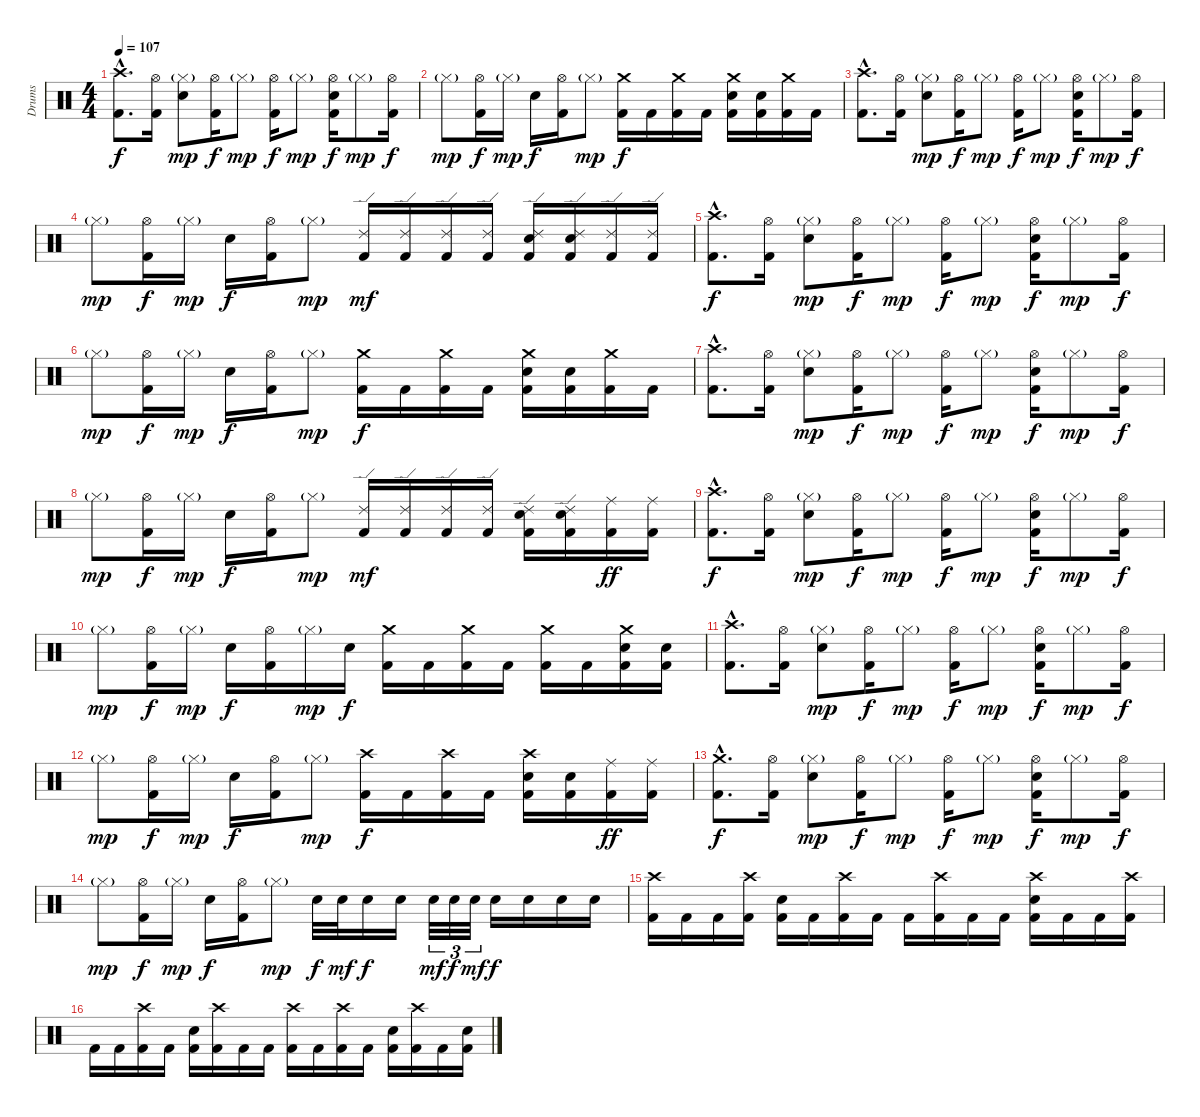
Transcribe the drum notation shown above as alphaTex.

\track ("Drums" "Drums") {instrument percussion}
\staff {score}
\articulation defaults
\ts (4 4)
\tempo 107
\clef neutral
\ks c
("Kick (hit) 2"{hac} "Crash high (hit)"{hac}).8{d dy f} ("Kick (hit) 2" "Hi-Hat (open)").16 ("Electric Snare (hit)" "Hi-Hat (closed)"{g}).8{dy mp} ("Kick (hit) 2" "Hi-Hat (open)").16{dy f} "Hi-Hat (closed)"{g}.8{dy mp} ("Kick (hit) 2" "Hi-Hat (open)").16{dy f} "Hi-Hat (closed)"{g}.8{dy mp} ("Kick (hit) 2" "Electric Snare (hit)" "Hi-Hat (open)").16{dy f} "Hi-Hat (closed)"{g}.8{dy mp} ("Kick (hit) 2" "Hi-Hat (open)").16{dy f} |
"Hi-Hat (closed)"{g}.8{dy mp} ("Kick (hit) 2" "Hi-Hat (open)").16{dy f} "Hi-Hat (closed)"{g}.16{dy mp} "Electric Snare (hit)".16{dy f} ("Kick (hit) 2" "Hi-Hat (open)").16 "Hi-Hat (closed)"{g}.8{dy mp} ("Kick (hit) 2" "Crash medium (hit)").16{dy f} "Kick (hit) 2".16 ("Kick (hit) 2" "Crash medium (hit)").16 "Kick (hit) 2".16 ("Kick (hit) 2" "Electric Snare (hit)" "Crash medium (hit)").16 ("Kick (hit) 2" "Electric Snare (hit)").16 ("Kick (hit) 2" "Crash medium (hit)").16 "Kick (hit) 2".16 |
("Kick (hit) 2"{hac} "Crash high (hit)"{hac}).8{d} ("Kick (hit) 2" "Hi-Hat (open)").16 ("Electric Snare (hit)" "Hi-Hat (closed)"{g}).8{dy mp} ("Kick (hit) 2" "Hi-Hat (open)").16{dy f} "Hi-Hat (closed)"{g}.8{dy mp} ("Kick (hit) 2" "Hi-Hat (open)").16{dy f} "Hi-Hat (closed)"{g}.8{dy mp} ("Kick (hit) 2" "Electric Snare (hit)" "Hi-Hat (open)").16{dy f} "Hi-Hat (closed)"{g}.8{dy mp} ("Kick (hit) 2" "Hi-Hat (open)").16{dy f} |
"Hi-Hat (closed)"{g}.8{dy mp} ("Kick (hit) 2" "Hi-Hat (open)").16{dy f} "Hi-Hat (closed)"{g}.16{dy mp} "Electric Snare (hit)".16{dy f} ("Kick (hit) 2" "Hi-Hat (open)").16 "Hi-Hat (closed)"{g}.8{dy mp} ("Kick (hit) 2" "Ride (edge) 2").16{dy mf} ("Kick (hit) 2" "Ride (edge) 2").16 ("Kick (hit) 2" "Ride (edge) 2").16 ("Kick (hit) 2" "Ride (edge) 2").16 ("Kick (hit) 2" "Electric Snare (hit)" "Ride (edge) 2").16 ("Kick (hit) 2" "Electric Snare (hit)" "Ride (edge) 2").16 ("Kick (hit) 2" "Ride (edge) 2").16 ("Kick (hit) 2" "Ride (edge) 2").16 |
("Kick (hit) 2"{hac} "Crash high (hit)"{hac}).8{d dy f} ("Kick (hit) 2" "Hi-Hat (open)").16 ("Electric Snare (hit)" "Hi-Hat (closed)"{g}).8{dy mp} ("Kick (hit) 2" "Hi-Hat (open)").16{dy f} "Hi-Hat (closed)"{g}.8{dy mp} ("Kick (hit) 2" "Hi-Hat (open)").16{dy f} "Hi-Hat (closed)"{g}.8{dy mp} ("Kick (hit) 2" "Electric Snare (hit)" "Hi-Hat (open)").16{dy f} "Hi-Hat (closed)"{g}.8{dy mp} ("Kick (hit) 2" "Hi-Hat (open)").16{dy f} |
"Hi-Hat (closed)"{g}.8{dy mp} ("Kick (hit) 2" "Hi-Hat (open)").16{dy f} "Hi-Hat (closed)"{g}.16{dy mp} "Electric Snare (hit)".16{dy f} ("Kick (hit) 2" "Hi-Hat (open)").16 "Hi-Hat (closed)"{g}.8{dy mp} ("Kick (hit) 2" "Crash medium (hit)").16{dy f} "Kick (hit) 2".16 ("Kick (hit) 2" "Crash medium (hit)").16 "Kick (hit) 2".16 ("Kick (hit) 2" "Electric Snare (hit)" "Crash medium (hit)").16 ("Kick (hit) 2" "Electric Snare (hit)").16 ("Kick (hit) 2" "Crash medium (hit)").16 "Kick (hit) 2".16 |
("Kick (hit) 2"{hac} "Crash high (hit)"{hac}).8{d} ("Kick (hit) 2" "Hi-Hat (open)").16 ("Electric Snare (hit)" "Hi-Hat (closed)"{g}).8{dy mp} ("Kick (hit) 2" "Hi-Hat (open)").16{dy f} "Hi-Hat (closed)"{g}.8{dy mp} ("Kick (hit) 2" "Hi-Hat (open)").16{dy f} "Hi-Hat (closed)"{g}.8{dy mp} ("Kick (hit) 2" "Electric Snare (hit)" "Hi-Hat (open)").16{dy f} "Hi-Hat (closed)"{g}.8{dy mp} ("Kick (hit) 2" "Hi-Hat (open)").16{dy f} |
"Hi-Hat (closed)"{g}.8{dy mp} ("Kick (hit) 2" "Hi-Hat (open)").16{dy f} "Hi-Hat (closed)"{g}.16{dy mp} "Electric Snare (hit)".16{dy f} ("Kick (hit) 2" "Hi-Hat (open)").16 "Hi-Hat (closed)"{g}.8{dy mp} ("Kick (hit) 2" "Ride (edge) 2").16{dy mf} ("Kick (hit) 2" "Ride (edge) 2").16 ("Kick (hit) 2" "Ride (edge) 2").16 ("Kick (hit) 2" "Ride (edge) 2").16 ("Kick (hit) 2" "Electric Snare (hit)" "Ride (edge) 2").16 ("Kick (hit) 2" "Electric Snare (hit)" "Ride (edge) 2").16 ("Kick (hit) 2" "Ride (middle)").16{dy ff} ("Kick (hit) 2" "Ride (middle)").16 |
("Kick (hit) 2"{hac} "Crash high (hit)"{hac}).8{d dy f} ("Kick (hit) 2" "Hi-Hat (open)").16 ("Electric Snare (hit)" "Hi-Hat (closed)"{g}).8{dy mp} ("Kick (hit) 2" "Hi-Hat (open)").16{dy f} "Hi-Hat (closed)"{g}.8{dy mp} ("Kick (hit) 2" "Hi-Hat (open)").16{dy f} "Hi-Hat (closed)"{g}.8{dy mp} ("Kick (hit) 2" "Electric Snare (hit)" "Hi-Hat (open)").16{dy f} "Hi-Hat (closed)"{g}.8{dy mp} ("Kick (hit) 2" "Hi-Hat (open)").16{dy f} |
"Hi-Hat (closed)"{g}.8{dy mp} ("Kick (hit) 2" "Hi-Hat (open)").16{dy f} "Hi-Hat (closed)"{g}.16{dy mp} "Electric Snare (hit)".16{dy f} ("Kick (hit) 2" "Hi-Hat (open)").16 "Hi-Hat (closed)"{g}.16{dy mp} "Electric Snare (hit)".16{dy f} ("Kick (hit) 2" "Crash medium (hit)").16 "Kick (hit) 2".16 ("Kick (hit) 2" "Crash medium (hit)").16 "Kick (hit) 2".16 ("Kick (hit) 2" "Crash medium (hit)").16 "Kick (hit) 2".16 ("Kick (hit) 2" "Electric Snare (hit)" "Crash medium (hit)").16 ("Kick (hit) 2" "Electric Snare (hit)").16 |
("Kick (hit) 2"{hac} "Crash high (hit)"{hac}).8{d} ("Kick (hit) 2" "Hi-Hat (open)").16 ("Electric Snare (hit)" "Hi-Hat (closed)"{g}).8{dy mp} ("Kick (hit) 2" "Hi-Hat (open)").16{dy f} "Hi-Hat (closed)"{g}.8{dy mp} ("Kick (hit) 2" "Hi-Hat (open)").16{dy f} "Hi-Hat (closed)"{g}.8{dy mp} ("Kick (hit) 2" "Electric Snare (hit)" "Hi-Hat (open)").16{dy f} "Hi-Hat (closed)"{g}.8{dy mp} ("Kick (hit) 2" "Hi-Hat (open)").16{dy f} |
"Hi-Hat (closed)"{g}.8{dy mp} ("Kick (hit) 2" "Hi-Hat (open)").16{dy f} "Hi-Hat (closed)"{g}.16{dy mp} "Electric Snare (hit)".16{dy f} ("Kick (hit) 2" "Hi-Hat (open)").16 "Hi-Hat (closed)"{g}.8{dy mp} ("Kick (hit) 2" "Crash high (hit)").16{dy f} "Kick (hit) 2".16 ("Kick (hit) 2" "Crash high (hit)").16 "Kick (hit) 2".16 ("Kick (hit) 2" "Electric Snare (hit)" "Crash high (hit)").16 ("Kick (hit) 2" "Electric Snare (hit)").16 ("Kick (hit) 2" "Ride (middle)").16{dy ff} ("Kick (hit) 2" "Ride (middle)").16 |
("Kick (hit) 2"{hac} "Crash medium (hit)"{hac}).8{d dy f} ("Kick (hit) 2" "Hi-Hat (open)").16 ("Electric Snare (hit)" "Hi-Hat (closed)"{g}).8{dy mp} ("Kick (hit) 2" "Hi-Hat (open)").16{dy f} "Hi-Hat (closed)"{g}.8{dy mp} ("Kick (hit) 2" "Hi-Hat (open)").16{dy f} "Hi-Hat (closed)"{g}.8{dy mp} ("Kick (hit) 2" "Electric Snare (hit)" "Hi-Hat (open)").16{dy f} "Hi-Hat (closed)"{g}.8{dy mp} ("Kick (hit) 2" "Hi-Hat (open)").16{dy f} |
"Hi-Hat (closed)"{g}.8{dy mp} ("Kick (hit) 2" "Hi-Hat (open)").16{dy f} "Hi-Hat (closed)"{g}.16{dy mp} "Electric Snare (hit)".16{dy f} ("Kick (hit) 2" "Hi-Hat (open)").16 "Hi-Hat (closed)"{g}.8{dy mp} "Electric Snare (hit)".32{dy f} "Electric Snare (hit)".32{dy mf} "Electric Snare (hit)".16{dy f} "Electric Snare (hit)".16 "Electric Snare (hit)".32{tu (3 2) dy mf} "Electric Snare (hit)".32{tu (3 2) dy f} "Electric Snare (hit)".32{tu (3 2) dy mf} "Electric Snare (hit)".16{dy f} "Electric Snare (hit)".16 "Electric Snare (hit)".16 "Electric Snare (hit)".16 |
("Kick (hit) 2" "Crash high (hit)").16 "Kick (hit) 2".16 "Kick (hit) 2".16 ("Kick (hit) 2" "Crash high (hit)").16 ("Kick (hit) 2" "Electric Snare (hit)").16 "Kick (hit) 2".16 ("Kick (hit) 2" "Crash high (hit)").16 "Kick (hit) 2".16 "Kick (hit) 2".16 ("Kick (hit) 2" "Crash high (hit)").16 "Kick (hit) 2".16 "Kick (hit) 2".16 ("Kick (hit) 2" "Electric Snare (hit)" "Crash high (hit)").16 "Kick (hit) 2".16 "Kick (hit) 2".16 ("Kick (hit) 2" "Crash high (hit)").16 |
"Kick (hit) 2".16 "Kick (hit) 2".16 ("Kick (hit) 2" "Crash high (hit)").16 "Kick (hit) 2".16 ("Kick (hit) 2" "Electric Snare (hit)").16 ("Kick (hit) 2" "Crash high (hit)").16 "Kick (hit) 2".16 "Kick (hit) 2".16 ("Kick (hit) 2" "Crash high (hit)").16 "Kick (hit) 2".16 ("Kick (hit) 2" "Crash high (hit)").16 "Kick (hit) 2".16 ("Kick (hit) 2" "Electric Snare (hit)").16 ("Kick (hit) 2" "Crash high (hit)").16 "Kick (hit) 2".16 ("Kick (hit) 2" "Electric Snare (hit)").16
